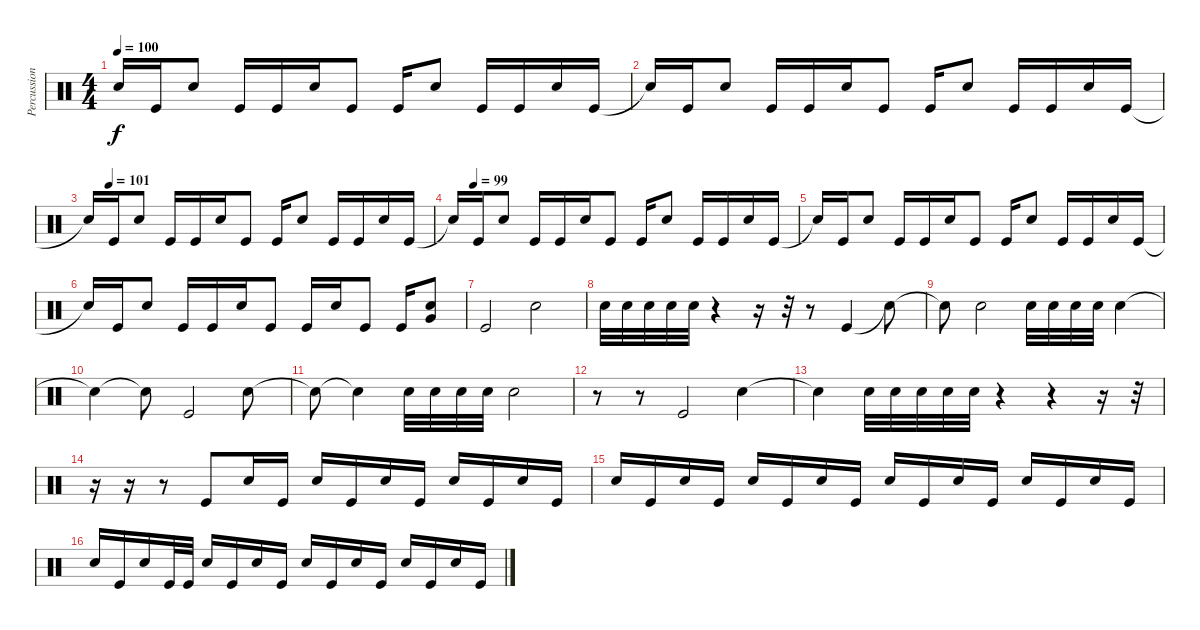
\track ("Percussion" "Percussion") {instrument percussion}
\staff {score}
\articulation defaults
\ts (4 4)
\tempo 100
\clef neutral
\ks c "Snare (hit)"{t}.16{dy f} "Kick (hit)".16 "Electric Snare (hit)".8 "Kick (hit)".16 "Kick (hit)".16 "Electric Snare (hit)".16 "Kick (hit)".8 "Kick (hit)".16 "Electric Snare (hit)".8 "Kick (hit)".16 "Kick (hit)".16 "Electric Snare (hit)".16 "Kick (hit)".16
|
"Snare (hit)"{t}.16 "Kick (hit)".16 "Electric Snare (hit)".8 "Kick (hit)".16 "Kick (hit)".16 "Electric Snare (hit)".16 "Kick (hit)".8 "Kick (hit)".16 "Electric Snare (hit)".8 "Kick (hit)".16 "Kick (hit)".16 "Electric Snare (hit)".16 "Kick (hit)".16 |
\tempo (101 0.0625)
"Snare (hit)"{t}.16 "Kick (hit)".16 "Electric Snare (hit)".8 "Kick (hit)".16 "Kick (hit)".16 "Electric Snare (hit)".16 "Kick (hit)".8 "Kick (hit)".16 "Electric Snare (hit)".8 "Kick (hit)".16 "Kick (hit)".16 "Electric Snare (hit)".16 "Kick (hit)".16 |
\tempo (99 0.0625)
"Snare (hit)"{t}.16 "Kick (hit)".16 "Electric Snare (hit)".8 "Kick (hit)".16 "Kick (hit)".16 "Electric Snare (hit)".16 "Kick (hit)".8 "Kick (hit)".16 "Electric Snare (hit)".8 "Kick (hit)".16 "Kick (hit)".16 "Electric Snare (hit)".16 "Kick (hit)".16 |
"Snare (hit)"{t}.16 "Kick (hit)".16 "Electric Snare (hit)".8 "Kick (hit)".16 "Kick (hit)".16 "Electric Snare (hit)".16 "Kick (hit)".8 "Kick (hit)".16 "Electric Snare (hit)".8 "Kick (hit)".16 "Kick (hit)".16 "Electric Snare (hit)".16 "Kick (hit)".16 |
"Snare (hit)"{t}.16 "Kick (hit)".16 "Electric Snare (hit)".8 "Kick (hit)".16 "Kick (hit)".16 "Electric Snare (hit)".16 "Kick (hit)".8 "Kick (hit)".16 "Electric Snare (hit)".16 "Kick (hit)".8 "Kick (hit)".16 ("Electric Snare (hit)" "Very Low Tom (hit)").8 |
"Kick (hit)".2 "Electric Snare (hit)".2 |
"Electric Snare (hit)".32 "Electric Snare (hit)".32 "Electric Snare (hit)".32 "Electric Snare (hit)".32 "Electric Snare (hit)".32 r.4 r.16 r.32 r.8 "Kick (hit)".4 "Snare (hit)"{t}.8 |
"Snare (hit)"{t}.8 "Electric Snare (hit)".2 "Electric Snare (hit)".32 "Electric Snare (hit)".32 "Electric Snare (hit)".32 "Electric Snare (hit)".32 "Electric Snare (hit)".4 |
"Snare (hit)"{t}.4 "Snare (hit)"{t}.8 "Kick (hit)".2 "Electric Snare (hit)".8 |
"Snare (hit)"{t}.8 "Snare (hit)"{t}.4 "Electric Snare (hit)".32 "Electric Snare (hit)".32 "Electric Snare (hit)".32 "Electric Snare (hit)".32 "Electric Snare (hit)".2 |
r.8 r.8 "Kick (hit)".2 "Electric Snare (hit)".4 |
"Snare (hit)"{t}.4 "Electric Snare (hit)".32 "Electric Snare (hit)".32 "Electric Snare (hit)".32 "Electric Snare (hit)".32 "Electric Snare (hit)".32 r.4 r.4 r.16 r.32 |
r.16 r.16 r.8 "Kick (hit)".8 "Electric Snare (hit)".16 "Kick (hit)".16 "Electric Snare (hit)".16 "Kick (hit)".16 "Electric Snare (hit)".16 "Kick (hit)".16 "Electric Snare (hit)".16 "Kick (hit)".16 "Electric Snare (hit)".16 "Kick (hit)".16 |
"Electric Snare (hit)".16 "Kick (hit)".16 "Electric Snare (hit)".16 "Kick (hit)".16 "Electric Snare (hit)".16 "Kick (hit)".16 "Electric Snare (hit)".16 "Kick (hit)".16 "Electric Snare (hit)".16 "Kick (hit)".16 "Electric Snare (hit)".16 "Kick (hit)".16 "Electric Snare (hit)".16 "Kick (hit)".16 "Electric Snare (hit)".16 "Kick (hit)".16 |
"Electric Snare (hit)".16 "Kick (hit)".16 "Electric Snare (hit)".16 "Kick (hit)".32 "Kick (hit)".32 "Electric Snare (hit)".16 "Kick (hit)".16 "Electric Snare (hit)".16 "Kick (hit)".16 "Electric Snare (hit)".16 "Kick (hit)".16 "Electric Snare (hit)".16 "Kick (hit)".16 "Electric Snare (hit)".16 "Kick (hit)".16 "Electric Snare (hit)".16 "Kick (hit)".16
